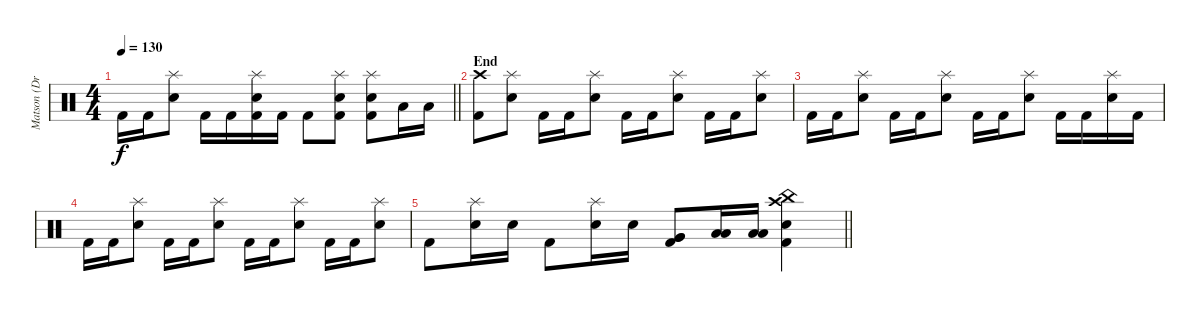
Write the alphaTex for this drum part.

\track ("Matson (Drums)" "Matson (Dr") {instrument percussion}
\staff {score}
\articulation defaults
\ts (4 4)
\tempo 130
\clef neutral
\barLineRight lightlight
\ks c "Kick (hit) 2".16{dy f} "Kick (hit) 2".16
("Snare (hit) 2" "Splash (hit)").8 "Kick (hit) 2".16 "Kick (hit) 2".16 ("Kick (hit) 2" "Snare (hit) 2" "Splash (hit)").16 "Kick (hit) 2".16 "Kick (hit) 2".8 ("Kick (hit) 2" "Snare (hit) 2" "Splash (hit)").8 ("Kick (hit) 2" "Snare (hit) 2" "Splash (hit)").8 "Low Floor Tom (hit)".16 "Low Floor Tom (hit)".16 |
\section ("" "End")
("Kick (hit) 2" "Crash high (hit)").8 ("Snare (hit) 2" "Splash (hit)").8 "Kick (hit) 2".16 "Kick (hit) 2".16 ("Snare (hit) 2" "Splash (hit)").8 "Kick (hit) 2".16 "Kick (hit) 2".16 ("Snare (hit) 2" "Splash (hit)").8 "Kick (hit) 2".16 "Kick (hit) 2".16 ("Snare (hit) 2" "Splash (hit)").8 |
"Kick (hit) 2".16 "Kick (hit) 2".16 ("Snare (hit) 2" "Splash (hit)").8 "Kick (hit) 2".16 "Kick (hit) 2".16 ("Snare (hit) 2" "Splash (hit)").8 "Kick (hit) 2".16 "Kick (hit) 2".16 ("Snare (hit) 2" "Splash (hit)").8 "Kick (hit) 2".16 "Kick (hit) 2".16 ("Snare (hit) 2" "Splash (hit)").16 "Kick (hit) 2".16 |
"Kick (hit) 2".16 "Kick (hit) 2".16 ("Snare (hit) 2" "Splash (hit)").8 "Kick (hit) 2".16 "Kick (hit) 2".16 ("Snare (hit) 2" "Splash (hit)").8 "Kick (hit) 2".16 "Kick (hit) 2".16 ("Snare (hit) 2" "Splash (hit)").8 "Kick (hit) 2".16 "Kick (hit) 2".16 ("Snare (hit) 2" "Splash (hit)").8 |
\barLineRight lightlight "Kick (hit) 2".8
("Snare (hit) 2" "Splash (hit)").16 "Snare (hit) 2".16 "Kick (hit) 2".8 ("Snare (hit) 2" "Splash (hit)").16 "Snare (hit) 2".16 ("Kick (hit) 2" "Very Low Tom (hit)" "Very Low Tom (hit)").8 ("Low Floor Tom (hit)" "Low Floor Tom (hit)").16 ("Low Floor Tom (hit)" "Low Floor Tom (hit)").16 ("Kick (hit) 2" "Snare (hit) 2" "Crash high (hit)" "China (hit)").4
